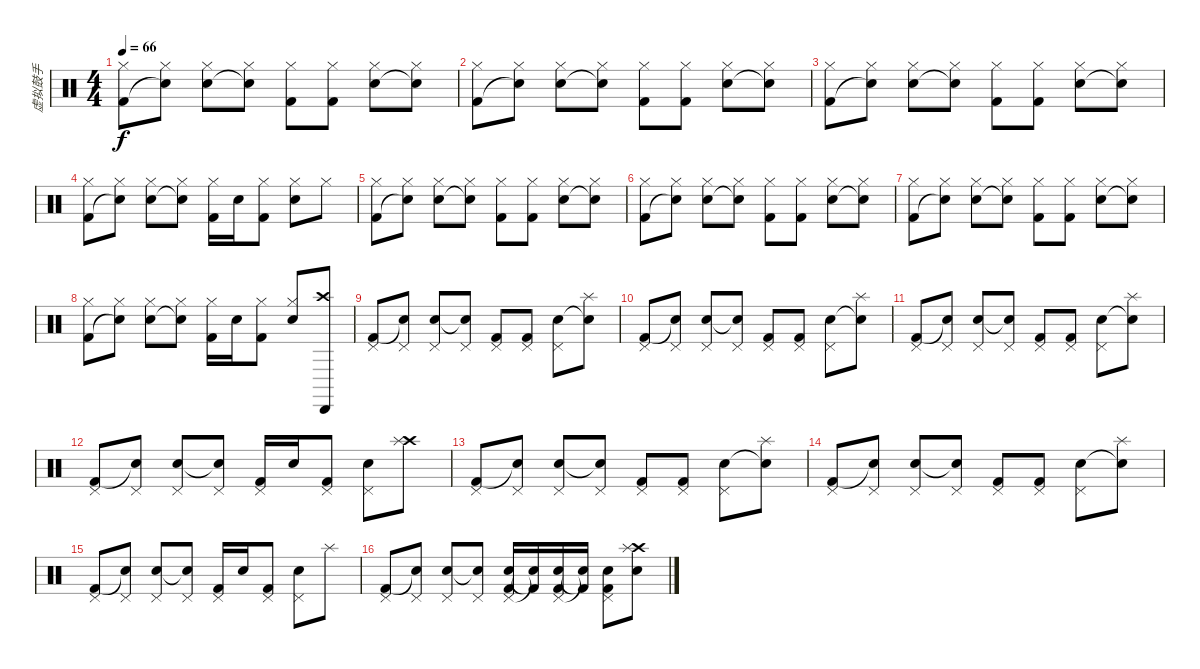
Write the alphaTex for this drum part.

\track ("虚拟鼓手" "虚拟鼓手") {instrument percussion}
\staff {score}
\articulation defaults
\ts (4 4)
\tempo 66
\clef neutral
\ks c
("Hi-Hat (closed)" "Kick (hit) 2").8{dy f} ("Hi-Hat (closed)" "Snare (hit)"{t}).8 ("Hi-Hat (closed)" "Electric Snare (hit)").8 ("Hi-Hat (closed)" "Snare (hit)"{t}).8 ("Hi-Hat (closed)" "Kick (hit) 2").8 ("Hi-Hat (closed)" "Kick (hit) 2").8 ("Hi-Hat (closed)" "Electric Snare (hit)").8 ("Hi-Hat (closed)" "Snare (hit)"{t}).8 |
("Hi-Hat (closed)" "Kick (hit) 2").8 ("Hi-Hat (closed)" "Snare (hit)"{t}).8 ("Hi-Hat (closed)" "Electric Snare (hit)").8 ("Hi-Hat (closed)" "Snare (hit)"{t}).8 ("Hi-Hat (closed)" "Kick (hit) 2").8 ("Hi-Hat (closed)" "Kick (hit) 2").8 ("Hi-Hat (closed)" "Electric Snare (hit)").8 ("Hi-Hat (closed)" "Snare (hit)"{t}).8 |
("Hi-Hat (closed)" "Kick (hit) 2").8 ("Hi-Hat (closed)" "Snare (hit)"{t}).8 ("Hi-Hat (closed)" "Electric Snare (hit)").8 ("Hi-Hat (closed)" "Snare (hit)"{t}).8 ("Hi-Hat (closed)" "Kick (hit) 2").8 ("Hi-Hat (closed)" "Kick (hit) 2").8 ("Hi-Hat (closed)" "Electric Snare (hit)").8 ("Hi-Hat (closed)" "Snare (hit)"{t}).8 |
("Hi-Hat (closed)" "Kick (hit) 2").8 ("Hi-Hat (closed)" "Snare (hit)"{t}).8 ("Hi-Hat (closed)" "Electric Snare (hit)").8 ("Hi-Hat (closed)" "Snare (hit)"{t}).8 ("Hi-Hat (closed)" "Kick (hit) 2").16 "Electric Snare (hit)".16 ("Hi-Hat (closed)" "Kick (hit) 2").8 ("Hi-Hat (closed)" "Electric Snare (hit)").8 "Hi-Hat (closed)".8 |
("Hi-Hat (closed)" "Kick (hit) 2").8 ("Hi-Hat (closed)" "Snare (hit)"{t}).8 ("Hi-Hat (closed)" "Electric Snare (hit)").8 ("Hi-Hat (closed)" "Snare (hit)"{t}).8 ("Hi-Hat (closed)" "Kick (hit) 2").8 ("Hi-Hat (closed)" "Kick (hit) 2").8 ("Hi-Hat (closed)" "Electric Snare (hit)").8 ("Hi-Hat (closed)" "Snare (hit)"{t}).8 |
("Hi-Hat (closed)" "Kick (hit) 2").8 ("Hi-Hat (closed)" "Snare (hit)"{t}).8 ("Hi-Hat (closed)" "Electric Snare (hit)").8 ("Hi-Hat (closed)" "Snare (hit)"{t}).8 ("Hi-Hat (closed)" "Kick (hit) 2").8 ("Hi-Hat (closed)" "Kick (hit) 2").8 ("Hi-Hat (closed)" "Electric Snare (hit)").8 ("Hi-Hat (closed)" "Snare (hit)"{t}).8 |
("Hi-Hat (closed)" "Kick (hit) 2").8 ("Hi-Hat (closed)" "Snare (hit)"{t}).8 ("Hi-Hat (closed)" "Electric Snare (hit)").8 ("Hi-Hat (closed)" "Snare (hit)"{t}).8 ("Hi-Hat (closed)" "Kick (hit) 2").8 ("Hi-Hat (closed)" "Kick (hit) 2").8 ("Hi-Hat (closed)" "Electric Snare (hit)").8 ("Hi-Hat (closed)" "Snare (hit)"{t}).8 |
("Hi-Hat (closed)" "Kick (hit) 2").8 ("Hi-Hat (closed)" "Snare (hit)"{t}).8 ("Hi-Hat (closed)" "Electric Snare (hit)").8 ("Hi-Hat (closed)" "Snare (hit)"{t}).8 ("Hi-Hat (closed)" "Kick (hit) 2").16 "Electric Snare (hit)".16 ("Hi-Hat (closed)" "Kick (hit) 2").8 ("Hi-Hat (closed)" "Electric Snare (hit)").8 ("Crash high (hit)" "Cabasa (hit)").8 |
("Pedal Hi-Hat (hit)" "Kick (hit) 2").8 ("Pedal Hi-Hat (hit)" "Snare (hit)"{t}).8 ("Pedal Hi-Hat (hit)" "Electric Snare (hit)").8 ("Pedal Hi-Hat (hit)" "Snare (hit)"{t}).8 ("Pedal Hi-Hat (hit)" "Kick (hit) 2").8 ("Pedal Hi-Hat (hit)" "Kick (hit) 2").8 ("Pedal Hi-Hat (hit)" "Electric Snare (hit)").8 ("Splash (hit)" "Snare (hit)"{t}).8 |
("Pedal Hi-Hat (hit)" "Kick (hit) 2").8 ("Pedal Hi-Hat (hit)" "Snare (hit)"{t}).8 ("Pedal Hi-Hat (hit)" "Electric Snare (hit)").8 ("Pedal Hi-Hat (hit)" "Snare (hit)"{t}).8 ("Pedal Hi-Hat (hit)" "Kick (hit) 2").8 ("Pedal Hi-Hat (hit)" "Kick (hit) 2").8 ("Pedal Hi-Hat (hit)" "Electric Snare (hit)").8 ("Splash (hit)" "Snare (hit)"{t}).8 |
("Pedal Hi-Hat (hit)" "Kick (hit) 2").8 ("Pedal Hi-Hat (hit)" "Snare (hit)"{t}).8 ("Pedal Hi-Hat (hit)" "Electric Snare (hit)").8 ("Pedal Hi-Hat (hit)" "Snare (hit)"{t}).8 ("Pedal Hi-Hat (hit)" "Kick (hit) 2").8 ("Pedal Hi-Hat (hit)" "Kick (hit) 2").8 ("Pedal Hi-Hat (hit)" "Electric Snare (hit)").8 ("Splash (hit)" "Snare (hit)"{t}).8 |
("Pedal Hi-Hat (hit)" "Kick (hit) 2").8 ("Pedal Hi-Hat (hit)" "Snare (hit)"{t}).8 ("Pedal Hi-Hat (hit)" "Electric Snare (hit)").8 ("Pedal Hi-Hat (hit)" "Snare (hit)"{t}).8 ("Pedal Hi-Hat (hit)" "Kick (hit) 2").16 "Electric Snare (hit)".16 ("Pedal Hi-Hat (hit)" "Kick (hit) 2").8 ("Pedal Hi-Hat (hit)" "Electric Snare (hit)").8 ("Crash high (hit)" "Splash (hit)").8 |
("Pedal Hi-Hat (hit)" "Kick (hit) 2").8 ("Pedal Hi-Hat (hit)" "Snare (hit)"{t}).8 ("Pedal Hi-Hat (hit)" "Electric Snare (hit)").8 ("Pedal Hi-Hat (hit)" "Snare (hit)"{t}).8 ("Pedal Hi-Hat (hit)" "Kick (hit) 2").8 ("Pedal Hi-Hat (hit)" "Kick (hit) 2").8 ("Pedal Hi-Hat (hit)" "Electric Snare (hit)").8 ("Splash (hit)" "Snare (hit)"{t}).8 |
("Pedal Hi-Hat (hit)" "Kick (hit) 2").8 ("Pedal Hi-Hat (hit)" "Snare (hit)"{t}).8 ("Pedal Hi-Hat (hit)" "Electric Snare (hit)").8 ("Pedal Hi-Hat (hit)" "Snare (hit)"{t}).8 ("Pedal Hi-Hat (hit)" "Kick (hit) 2").8 ("Pedal Hi-Hat (hit)" "Kick (hit) 2").8 ("Pedal Hi-Hat (hit)" "Electric Snare (hit)").8 ("Splash (hit)" "Snare (hit)"{t}).8 |
("Pedal Hi-Hat (hit)" "Kick (hit) 2").8 ("Pedal Hi-Hat (hit)" "Snare (hit)"{t}).8 ("Pedal Hi-Hat (hit)" "Electric Snare (hit)").8 ("Pedal Hi-Hat (hit)" "Snare (hit)"{t}).8 ("Pedal Hi-Hat (hit)" "Kick (hit) 2").16 "Electric Snare (hit)".16 ("Pedal Hi-Hat (hit)" "Kick (hit) 2").8 ("Pedal Hi-Hat (hit)" "Electric Snare (hit)").8 "Splash (hit)".8 |
("Pedal Hi-Hat (hit)" "Kick (hit) 2").8 ("Pedal Hi-Hat (hit)" "Snare (hit)"{t}).8 ("Pedal Hi-Hat (hit)" "Electric Snare (hit)").8 ("Pedal Hi-Hat (hit)" "Snare (hit)"{t}).8 ("Pedal Hi-Hat (hit)" "Electric Snare (hit)" "Kick (hit) 2").16 ("Electric Snare (hit)"{t} "Kick (hit) 2"{t}).16 ("Pedal Hi-Hat (hit)" "Electric Snare (hit)" "Kick (hit) 2").16 ("Electric Snare (hit)"{t} "Kick (hit) 2"{t}).16 ("Pedal Hi-Hat (hit)" "Electric Snare (hit)" "Kick (hit) 2").8 ("Crash high (hit)" "Splash (hit)" "Electric Snare (hit)").8
